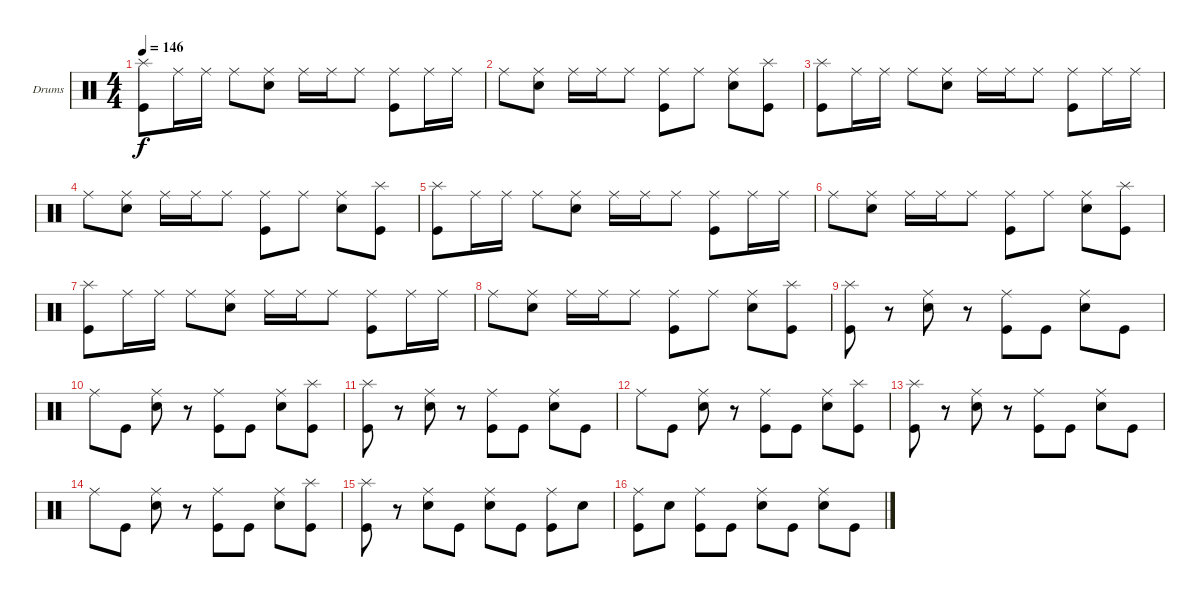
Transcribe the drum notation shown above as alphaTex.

\bracketExtendMode groupsimilarinstruments
\firstSystemTrackNameOrientation horizontal
\otherSystemsTrackNameOrientation horizontal
\track ("Drumkit" "Drums") {instrument percussion}
\staff {score}
\articulation defaults
\ts (4 4)
\tempo 146
\clef neutral
\scale
0.333333
\ks c
("Kick (hit)" "Splash (hit)").8{dy f} "Ride (middle)".16 "Ride (middle)".16 "Ride (middle)".8 ("Snare (hit) 2" "Ride (middle)").8 "Ride (middle)".16 "Ride (middle)".16 "Ride (middle)".8 ("Kick (hit)" "Ride (middle)").8 "Ride (middle)".16 "Ride (middle)".16 |
\scale
0.333333 "Ride (middle)".8 ("Snare (hit) 2" "Ride (middle)").8 "Ride (middle)".16 "Ride (middle)".16 "Ride (middle)".8 ("Kick (hit)" "Ride (middle)").8 "Ride (middle)".8 ("Snare (hit) 2" "Ride (middle)").8 ("Kick (hit)" "Splash (hit)").8 |
\scale
0.333333 ("Kick (hit)" "Splash (hit)").8 "Ride (middle)".16 "Ride (middle)".16 "Ride (middle)".8 ("Snare (hit) 2" "Ride (middle)").8 "Ride (middle)".16 "Ride (middle)".16 "Ride (middle)".8 ("Kick (hit)" "Ride (middle)").8 "Ride (middle)".16 "Ride (middle)".16 |
\scale
0.333333 "Ride (middle)".8 ("Snare (hit) 2" "Ride (middle)").8 "Ride (middle)".16 "Ride (middle)".16 "Ride (middle)".8 ("Kick (hit)" "Ride (middle)").8 "Ride (middle)".8 ("Snare (hit) 2" "Ride (middle)").8 ("Kick (hit)" "Splash (hit)").8 |
\scale
0.333333 ("Kick (hit)" "Splash (hit)").8 "Ride (middle)".16 "Ride (middle)".16 "Ride (middle)".8 ("Snare (hit) 2" "Ride (middle)").8 "Ride (middle)".16 "Ride (middle)".16 "Ride (middle)".8 ("Kick (hit)" "Ride (middle)").8 "Ride (middle)".16 "Ride (middle)".16 |
\scale
0.333333 "Ride (middle)".8 ("Snare (hit) 2" "Ride (middle)").8 "Ride (middle)".16 "Ride (middle)".16 "Ride (middle)".8 ("Kick (hit)" "Ride (middle)").8 "Ride (middle)".8 ("Snare (hit) 2" "Ride (middle)").8 ("Kick (hit)" "Splash (hit)").8 |
\scale
0.333333 ("Kick (hit)" "Splash (hit)").8 "Ride (middle)".16 "Ride (middle)".16 "Ride (middle)".8 ("Snare (hit) 2" "Ride (middle)").8 "Ride (middle)".16 "Ride (middle)".16 "Ride (middle)".8 ("Kick (hit)" "Ride (middle)").8 "Ride (middle)".16 "Ride (middle)".16 |
\scale
0.333333 "Ride (middle)".8 ("Snare (hit) 2" "Ride (middle)").8 "Ride (middle)".16 "Ride (middle)".16 "Ride (middle)".8 ("Kick (hit)" "Ride (middle)").8 "Ride (middle)".8 ("Snare (hit) 2" "Ride (middle)").8 ("Kick (hit)" "Splash (hit)").8 |
\scale
0.333333 ("Kick (hit)" "Splash (hit)").8 r.8 ("Ride (middle)" "Snare (hit) 2").8 r.8 ("Ride (middle)" "Kick (hit)").8 "Kick (hit)".8 ("Ride (middle)" "Snare (hit) 2").8 "Kick (hit)".8 |
\scale
0.333333 "Ride (middle)".8 "Kick (hit)".8 ("Ride (middle)" "Snare (hit) 2").8 r.8 ("Ride (middle)" "Kick (hit)").8 "Kick (hit)".8 ("Ride (middle)" "Snare (hit) 2").8 ("Kick (hit)" "Splash (hit)").8 |
\scale
0.333333 ("Kick (hit)" "Splash (hit)").8 r.8 ("Ride (middle)" "Snare (hit) 2").8 r.8 ("Ride (middle)" "Kick (hit)").8 "Kick (hit)".8 ("Ride (middle)" "Snare (hit) 2").8 "Kick (hit)".8 |
\scale
0.333333 "Ride (middle)".8 "Kick (hit)".8 ("Ride (middle)" "Snare (hit) 2").8 r.8 ("Ride (middle)" "Kick (hit)").8 "Kick (hit)".8 ("Ride (middle)" "Snare (hit) 2").8 ("Kick (hit)" "Splash (hit)").8 |
\scale
0.333333 ("Kick (hit)" "Splash (hit)").8 r.8 ("Ride (middle)" "Snare (hit) 2").8 r.8 ("Ride (middle)" "Kick (hit)").8 "Kick (hit)".8 ("Ride (middle)" "Snare (hit) 2").8 "Kick (hit)".8 |
\scale
0.333333 "Ride (middle)".8 "Kick (hit)".8 ("Ride (middle)" "Snare (hit) 2").8 r.8 ("Ride (middle)" "Kick (hit)").8 "Kick (hit)".8 ("Ride (middle)" "Snare (hit) 2").8 ("Kick (hit)" "Splash (hit)").8 |
\scale
0.333333 ("Kick (hit)" "Splash (hit)").8 r.8 ("Ride (middle)" "Snare (hit) 2").8 "Kick (hit)".8 ("Ride (middle)" "Snare (hit) 2").8 "Kick (hit)".8 ("Ride (middle)" "Kick (hit)").8 "Snare (hit) 2".8 |
\scale
0.333333 ("Kick (hit)" "Ride (middle)").8 "Snare (hit) 2".8 ("Kick (hit)" "Ride (middle)").8 "Kick (hit)".8 ("Ride (middle)" "Snare (hit) 2").8 "Kick (hit)".8 ("Ride (middle)" "Snare (hit) 2").8 "Kick (hit)".8
